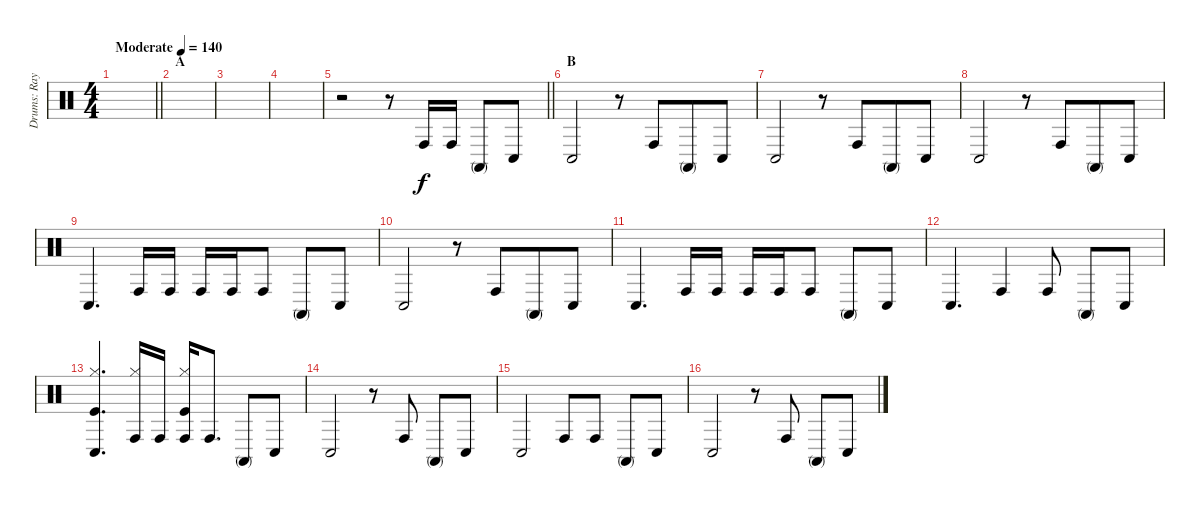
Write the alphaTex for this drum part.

\track ("Drums: Ray Cooper" "Drums: Ray") {instrument percussion}
\staff {score}
\articulation defaults
\ts (4 4)
\tempo (140 "Moderate")
\clef neutral
\barLineRight lightlight
\ks c
|
\section ("" "A")
|
|
|
\barLineRight lightlight
r.2 r.8 "Conga high (hit)".16 "Conga high (hit)".16 "Conga high (mute)".8 "Conga low (hit)".8 |
\section ("" "B")
"Conga low (hit)".2 r.8 "Conga high (hit)".8{beam merge} "Conga high (mute)".8 "Conga low (hit)".8 |
"Conga low (hit)".2 r.8 "Conga high (hit)".8{beam merge} "Conga high (mute)".8{beam merge} "Conga low (hit)".8 |
"Conga low (hit)".2 r.8 "Conga high (hit)".8{beam merge} "Conga high (mute)".8{beam merge} "Conga low (hit)".8 |
"Conga low (hit)".4{d} "Conga high (hit)".16 "Conga high (hit)".16 "Conga high (hit)".16 "Conga high (hit)".16 "Conga high (hit)".8 "Conga high (mute)".8 "Conga low (hit)".8 |
"Conga low (hit)".2 r.8 "Conga high (hit)".8{beam merge} "Conga high (mute)".8{beam merge} "Conga low (hit)".8 |
"Conga low (hit)".4{d dy f} "Conga high (hit)".16 "Conga high (hit)".16 "Conga high (hit)".16 "Conga high (hit)".16 "Conga high (hit)".8 "Conga high (mute)".8 "Conga low (hit)".8 |
"Conga low (hit)".4{d} "Conga high (hit)".4 "Conga high (hit)".8 "Conga high (mute)".8 "Conga low (hit)".8 |
("Hi-Hat (closed)" "Kick (hit)" "Conga low (hit)").4{d} ("Conga high (hit)" "Hi-Hat (closed)").16 "Conga high (hit)".16 ("Kick (hit)" "Hi-Hat (closed)" "Conga high (hit)").16 "Conga high (hit)".8{d} "Conga high (mute)".8 "Conga low (hit)".8 |
"Conga low (hit)".2 r.8 "Conga high (hit)".8 "Conga high (mute)".8 "Conga low (hit)".8 |
"Conga low (hit)".2 "Conga high (hit)".8 "Conga high (hit)".8 "Conga high (mute)".8 "Conga low (hit)".8 |
"Conga low (hit)".2 r.8 "Conga high (hit)".8 "Conga high (mute)".8 "Conga low (hit)".8
